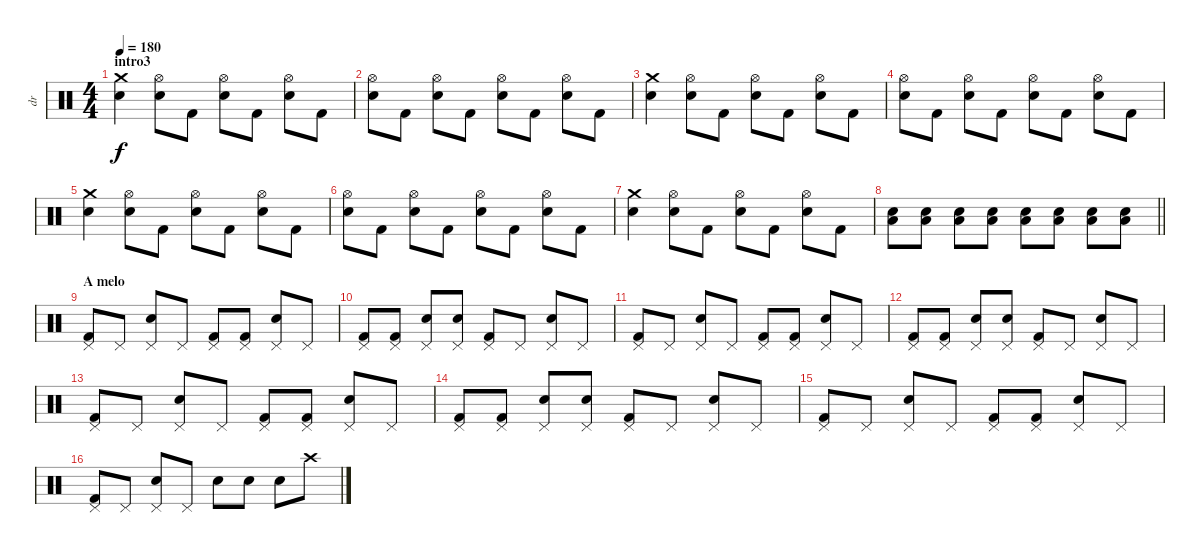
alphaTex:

\track ("dr" "dr") {instrument percussion}
\staff {score}
\articulation defaults
\ts (4 4)
\section ("" "intro3")
\tempo 180
\clef neutral
\ks c
("Crash medium (hit)" "Electric Snare (hit)").4{dy f} ("Hi-Hat (open)" "Electric Snare (hit)").8 "Kick (hit) 2".8 ("Hi-Hat (open)" "Electric Snare (hit)").8 "Kick (hit) 2".8 ("Hi-Hat (open)" "Electric Snare (hit)").8 "Kick (hit) 2".8 |
("Hi-Hat (open)" "Electric Snare (hit)").8 "Kick (hit) 2".8 ("Hi-Hat (open)" "Electric Snare (hit)").8 "Kick (hit) 2".8 ("Hi-Hat (open)" "Electric Snare (hit)").8 "Kick (hit) 2".8 ("Hi-Hat (open)" "Electric Snare (hit)").8 "Kick (hit) 2".8 |
("Crash medium (hit)" "Electric Snare (hit)").4 ("Hi-Hat (open)" "Electric Snare (hit)").8 "Kick (hit) 2".8 ("Hi-Hat (open)" "Electric Snare (hit)").8 "Kick (hit) 2".8 ("Hi-Hat (open)" "Electric Snare (hit)").8 "Kick (hit) 2".8 |
("Hi-Hat (open)" "Electric Snare (hit)").8 "Kick (hit) 2".8 ("Hi-Hat (open)" "Electric Snare (hit)").8 "Kick (hit) 2".8 ("Hi-Hat (open)" "Electric Snare (hit)").8 "Kick (hit) 2".8 ("Hi-Hat (open)" "Electric Snare (hit)").8 "Kick (hit) 2".8 |
("Crash medium (hit)" "Electric Snare (hit)").4 ("Hi-Hat (open)" "Electric Snare (hit)").8 "Kick (hit) 2".8 ("Hi-Hat (open)" "Electric Snare (hit)").8 "Kick (hit) 2".8 ("Hi-Hat (open)" "Electric Snare (hit)").8 "Kick (hit) 2".8 |
("Hi-Hat (open)" "Electric Snare (hit)").8 "Kick (hit) 2".8 ("Hi-Hat (open)" "Electric Snare (hit)").8 "Kick (hit) 2".8 ("Hi-Hat (open)" "Electric Snare (hit)").8 "Kick (hit) 2".8 ("Hi-Hat (open)" "Electric Snare (hit)").8 "Kick (hit) 2".8 |
("Crash medium (hit)" "Electric Snare (hit)").4 ("Hi-Hat (open)" "Electric Snare (hit)").8 "Kick (hit) 2".8 ("Hi-Hat (open)" "Electric Snare (hit)").8 "Kick (hit) 2".8 ("Hi-Hat (open)" "Electric Snare (hit)").8 "Kick (hit) 2".8 |
\barLineRight lightlight
("Low Tom (hit)" "Electric Snare (hit)").8 ("Low Tom (hit)" "Electric Snare (hit)").8 ("Low Tom (hit)" "Electric Snare (hit)").8 ("Low Tom (hit)" "Electric Snare (hit)").8 ("Low Tom (hit)" "Electric Snare (hit)").8 ("Low Tom (hit)" "Electric Snare (hit)").8 ("Low Tom (hit)" "Electric Snare (hit)").8 ("Low Tom (hit)" "Electric Snare (hit)").8 |
\section ("" "A melo")
("Pedal Hi-Hat (hit)" "Kick (hit) 2").8 "Pedal Hi-Hat (hit)".8 ("Pedal Hi-Hat (hit)" "Electric Snare (hit)").8 "Pedal Hi-Hat (hit)".8 ("Pedal Hi-Hat (hit)" "Kick (hit) 2").8 ("Pedal Hi-Hat (hit)" "Kick (hit) 2").8 ("Pedal Hi-Hat (hit)" "Electric Snare (hit)").8 "Pedal Hi-Hat (hit)".8 |
("Pedal Hi-Hat (hit)" "Kick (hit) 2").8 ("Pedal Hi-Hat (hit)" "Kick (hit) 2").8 ("Pedal Hi-Hat (hit)" "Electric Snare (hit)").8 ("Pedal Hi-Hat (hit)" "Electric Snare (hit)").8 ("Pedal Hi-Hat (hit)" "Kick (hit) 2").8 "Pedal Hi-Hat (hit)".8 ("Pedal Hi-Hat (hit)" "Electric Snare (hit)").8 "Pedal Hi-Hat (hit)".8 |
("Pedal Hi-Hat (hit)" "Kick (hit) 2").8 "Pedal Hi-Hat (hit)".8 ("Pedal Hi-Hat (hit)" "Electric Snare (hit)").8 "Pedal Hi-Hat (hit)".8 ("Pedal Hi-Hat (hit)" "Kick (hit) 2").8 ("Pedal Hi-Hat (hit)" "Kick (hit) 2").8 ("Pedal Hi-Hat (hit)" "Electric Snare (hit)").8 "Pedal Hi-Hat (hit)".8 |
("Pedal Hi-Hat (hit)" "Kick (hit) 2").8 ("Pedal Hi-Hat (hit)" "Kick (hit) 2").8 ("Pedal Hi-Hat (hit)" "Electric Snare (hit)").8 ("Pedal Hi-Hat (hit)" "Electric Snare (hit)").8 ("Pedal Hi-Hat (hit)" "Kick (hit) 2").8 "Pedal Hi-Hat (hit)".8 ("Pedal Hi-Hat (hit)" "Electric Snare (hit)").8 "Pedal Hi-Hat (hit)".8 |
("Pedal Hi-Hat (hit)" "Kick (hit) 2").8 "Pedal Hi-Hat (hit)".8 ("Pedal Hi-Hat (hit)" "Electric Snare (hit)").8 "Pedal Hi-Hat (hit)".8 ("Pedal Hi-Hat (hit)" "Kick (hit) 2").8 ("Pedal Hi-Hat (hit)" "Kick (hit) 2").8 ("Pedal Hi-Hat (hit)" "Electric Snare (hit)").8 "Pedal Hi-Hat (hit)".8 |
("Pedal Hi-Hat (hit)" "Kick (hit) 2").8 ("Pedal Hi-Hat (hit)" "Kick (hit) 2").8 ("Pedal Hi-Hat (hit)" "Electric Snare (hit)").8 ("Pedal Hi-Hat (hit)" "Electric Snare (hit)").8 ("Pedal Hi-Hat (hit)" "Kick (hit) 2").8 "Pedal Hi-Hat (hit)".8 ("Pedal Hi-Hat (hit)" "Electric Snare (hit)").8 "Pedal Hi-Hat (hit)".8 |
("Pedal Hi-Hat (hit)" "Kick (hit) 2").8 "Pedal Hi-Hat (hit)".8 ("Pedal Hi-Hat (hit)" "Electric Snare (hit)").8 "Pedal Hi-Hat (hit)".8 ("Pedal Hi-Hat (hit)" "Kick (hit) 2").8 ("Pedal Hi-Hat (hit)" "Kick (hit) 2").8 ("Pedal Hi-Hat (hit)" "Electric Snare (hit)").8 "Pedal Hi-Hat (hit)".8 |
("Pedal Hi-Hat (hit)" "Kick (hit) 2").8 "Pedal Hi-Hat (hit)".8 ("Pedal Hi-Hat (hit)" "Electric Snare (hit)").8 "Pedal Hi-Hat (hit)".8 "Electric Snare (hit)".8 "Electric Snare (hit)".8 "Electric Snare (hit)".8 "Crash high (hit)".8
